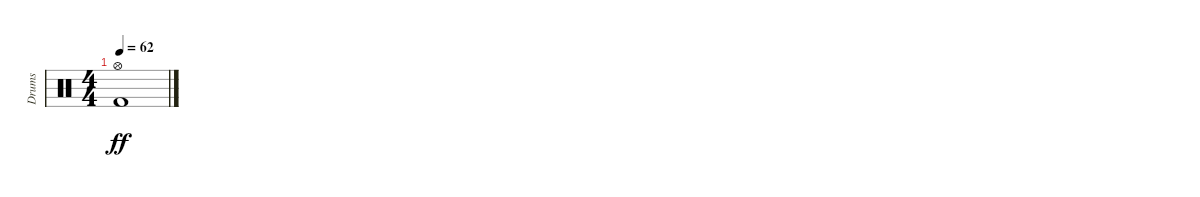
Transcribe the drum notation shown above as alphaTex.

\track ("Drums" "Drums") {instrument percussion}
\staff {score}
\articulation defaults
\ts (4 4)
\tempo 62
\clef neutral
\ks c
("Hi-Hat (open)" "Kick (hit) 2").1{dy ff}
